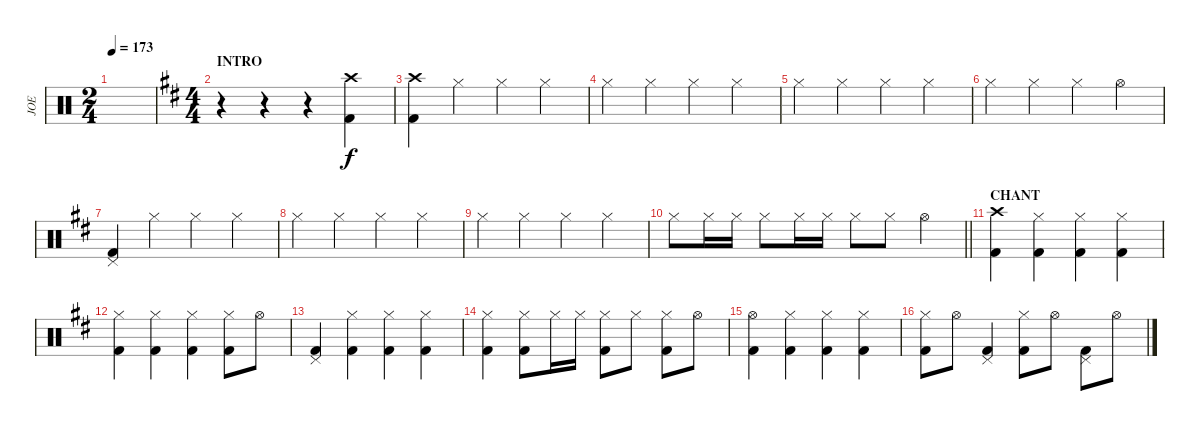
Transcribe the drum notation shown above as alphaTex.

\track ("JOE" "JOE") {instrument percussion}
\staff {score}
\articulation defaults
\ts (2 4)
\tempo 173
\clef neutral
\ks c
|
\ts (4 4)
\section ("" "INTRO")
\ks bminor
r.4 r.4 r.4 ("Crash high (hit)" "Kick (hit) 2").4 |
("Crash high (hit)" "Kick (hit) 2").4 "Hi-Hat (closed)".4 "Hi-Hat (closed)".4 "Hi-Hat (closed)".4 |
"Hi-Hat (closed)".4 "Hi-Hat (closed)".4 "Hi-Hat (closed)".4 "Hi-Hat (closed)".4 |
"Hi-Hat (closed)".4 "Hi-Hat (closed)".4 "Hi-Hat (closed)".4 "Hi-Hat (closed)".4 |
"Hi-Hat (closed)".4 "Hi-Hat (closed)".4 "Hi-Hat (closed)".4 "Hi-Hat (open)".4 |
("Pedal Hi-Hat (hit)" "Kick (hit) 2").4 "Hi-Hat (closed)".4 "Hi-Hat (closed)".4 "Hi-Hat (closed)".4 |
"Hi-Hat (closed)".4 "Hi-Hat (closed)".4 "Hi-Hat (closed)".4 "Hi-Hat (closed)".4 |
"Hi-Hat (closed)".4 "Hi-Hat (closed)".4 "Hi-Hat (closed)".4 "Hi-Hat (closed)".4 |
\barLineRight lightlight "Hi-Hat (closed)".8 "Hi-Hat (closed)".16 "Hi-Hat (closed)".16 "Hi-Hat (closed)".8 "Hi-Hat (closed)".16 "Hi-Hat (closed)".16 "Hi-Hat (closed)".8 "Hi-Hat (closed)".8 "Hi-Hat (open)".4
|
\section ("" "CHANT")
("Crash high (hit)" "Kick (hit) 2").4 ("Hi-Hat (closed)" "Kick (hit) 2").4 ("Hi-Hat (closed)" "Kick (hit) 2").4 ("Hi-Hat (closed)" "Kick (hit) 2").4 |
("Hi-Hat (closed)" "Kick (hit) 2").4 ("Hi-Hat (closed)" "Kick (hit) 2").4 ("Hi-Hat (closed)" "Kick (hit) 2").4 ("Hi-Hat (closed)" "Kick (hit) 2").8 "Hi-Hat (open)".8 |
("Pedal Hi-Hat (hit)" "Kick (hit) 2").4 ("Hi-Hat (closed)" "Kick (hit) 2").4 ("Hi-Hat (closed)" "Kick (hit) 2").4 ("Hi-Hat (closed)" "Kick (hit) 2").4 |
("Hi-Hat (closed)" "Kick (hit) 2").4 ("Hi-Hat (closed)" "Kick (hit) 2").8 "Hi-Hat (closed)".16 "Hi-Hat (closed)".16 ("Hi-Hat (closed)" "Kick (hit) 2").8 "Hi-Hat (closed)".8 ("Hi-Hat (closed)" "Kick (hit) 2").8 "Hi-Hat (open)".8 |
("Hi-Hat (open)" "Kick (hit) 2").4 ("Hi-Hat (closed)" "Kick (hit) 2").4 ("Hi-Hat (closed)" "Kick (hit) 2").4 ("Hi-Hat (closed)" "Kick (hit) 2").4 |
("Hi-Hat (closed)" "Kick (hit) 2").8 "Hi-Hat (open)".8 ("Pedal Hi-Hat (hit)" "Kick (hit) 2").4 ("Hi-Hat (closed)" "Kick (hit) 2").8 "Hi-Hat (open)".8 ("Pedal Hi-Hat (hit)" "Kick (hit) 2").8 "Hi-Hat (open)".8
